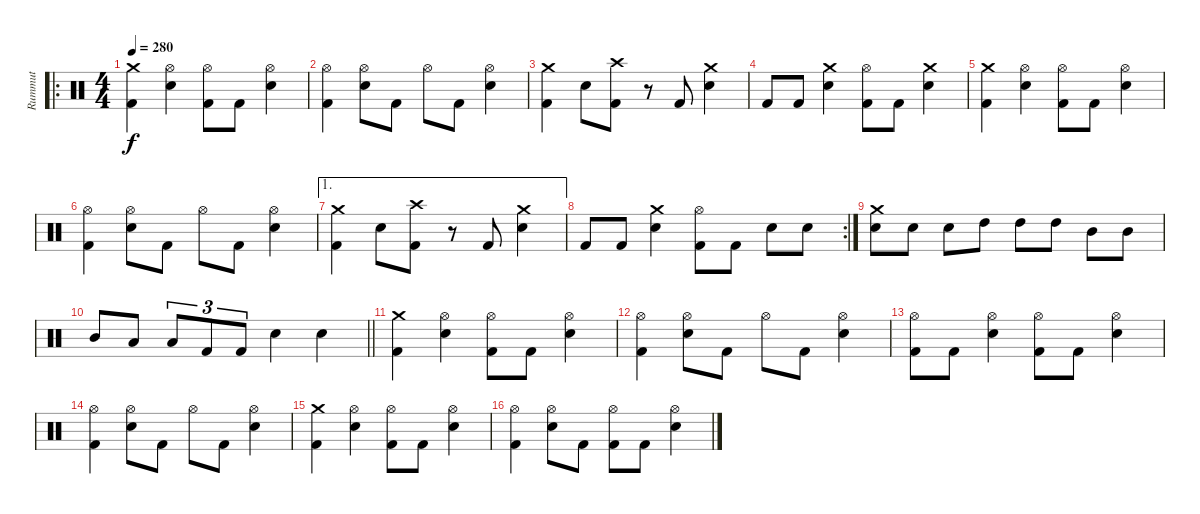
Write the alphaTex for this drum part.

\track ("Rummut" "Rummut") {instrument percussion}
\staff {score}
\articulation defaults
\ro
\ts (4 4)
\tempo 280
\clef neutral
\ks c
("Crash medium (hit)" "Kick (hit) 2").4{dy f} ("Hi-Hat (open)" "Snare (hit) 2").4 ("Hi-Hat (open)" "Kick (hit) 2").8 "Kick (hit) 2".8 ("Hi-Hat (open)" "Snare (hit) 2").4 |
("Hi-Hat (open)" "Kick (hit) 2").4 ("Hi-Hat (open)" "Snare (hit) 2").8 "Kick (hit) 2".8 "Hi-Hat (open)".8 "Kick (hit) 2".8 ("Hi-Hat (open)" "Snare (hit) 2").4 |
("Crash medium (hit)" "Kick (hit) 2").4 "Snare (hit) 2".8 ("Crash high (hit)" "Kick (hit) 2").8 r.8 "Kick (hit) 2".8 ("Crash medium (hit)" "Snare (hit) 2").4 |
"Kick (hit) 2".8 "Kick (hit) 2".8 ("Crash medium (hit)" "Snare (hit) 2").4 ("Hi-Hat (open)" "Kick (hit) 2").8 "Kick (hit) 2".8 ("Crash medium (hit)" "Snare (hit) 2").4 |
("Crash medium (hit)" "Kick (hit) 2").4 ("Hi-Hat (open)" "Snare (hit) 2").4 ("Hi-Hat (open)" "Kick (hit) 2").8 "Kick (hit) 2".8 ("Hi-Hat (open)" "Snare (hit) 2").4 |
("Hi-Hat (open)" "Kick (hit) 2").4 ("Hi-Hat (open)" "Snare (hit) 2").8 "Kick (hit) 2".8 "Hi-Hat (open)".8 "Kick (hit) 2".8 ("Hi-Hat (open)" "Snare (hit) 2").4 |
\ae 1
("Crash medium (hit)" "Kick (hit) 2").4 "Snare (hit) 2".8 ("Crash high (hit)" "Kick (hit) 2").8 r.8 "Kick (hit) 2".8 ("Crash medium (hit)" "Snare (hit) 2").4 |
\rc 2 "Kick (hit) 2".8 "Kick (hit) 2".8
("Crash medium (hit)" "Snare (hit) 2").4 ("Hi-Hat (open)" "Kick (hit) 2").8 "Kick (hit) 2".8 "Snare (hit) 2".8 "Snare (hit) 2".8 |
("Crash medium (hit)" "Snare (hit) 2").8 "Snare (hit) 2".8 "Snare (hit) 2".8 "High Tom (hit)".8 "High Tom (hit)".8 "High Tom (hit)".8 "Mid Tom (hit)".8 "Mid Tom (hit)".8 |
\barLineRight lightlight "Mid Tom (hit)".8 "Low Tom (hit)".8 "Low Tom (hit)".8{tu (3 2)} "Kick (hit) 2".8{tu (3 2)} "Kick (hit) 2".8{tu (3 2)} "Snare (hit) 2".4 "Snare (hit) 2".4
|
("Crash medium (hit)" "Kick (hit) 2").4 ("Hi-Hat (open)" "Snare (hit) 2").4 ("Hi-Hat (open)" "Kick (hit) 2").8 "Kick (hit) 2".8 ("Hi-Hat (open)" "Snare (hit) 2").4 |
("Hi-Hat (open)" "Kick (hit) 2").4 ("Hi-Hat (open)" "Snare (hit) 2").8 "Kick (hit) 2".8 "Hi-Hat (open)".8 "Kick (hit) 2".8 ("Hi-Hat (open)" "Snare (hit) 2").4 |
("Hi-Hat (open)" "Kick (hit) 2").8 "Kick (hit) 2".8 ("Hi-Hat (open)" "Snare (hit) 2").4 ("Hi-Hat (open)" "Kick (hit) 2").8 "Kick (hit) 2".8 ("Hi-Hat (open)" "Snare (hit) 2").4 |
("Hi-Hat (open)" "Kick (hit) 2").4 ("Hi-Hat (open)" "Snare (hit) 2").8 "Kick (hit) 2".8 "Hi-Hat (open)".8 "Kick (hit) 2".8 ("Hi-Hat (open)" "Snare (hit) 2").4 |
("Crash medium (hit)" "Kick (hit) 2").4 ("Hi-Hat (open)" "Snare (hit) 2").4 ("Hi-Hat (open)" "Kick (hit) 2").8 "Kick (hit) 2".8 ("Hi-Hat (open)" "Snare (hit) 2").4 |
("Hi-Hat (open)" "Kick (hit) 2").4 ("Hi-Hat (open)" "Snare (hit) 2").8 "Kick (hit) 2".8 ("Hi-Hat (open)" "Kick (hit) 2").8 "Kick (hit) 2".8 ("Hi-Hat (open)" "Snare (hit) 2").4
